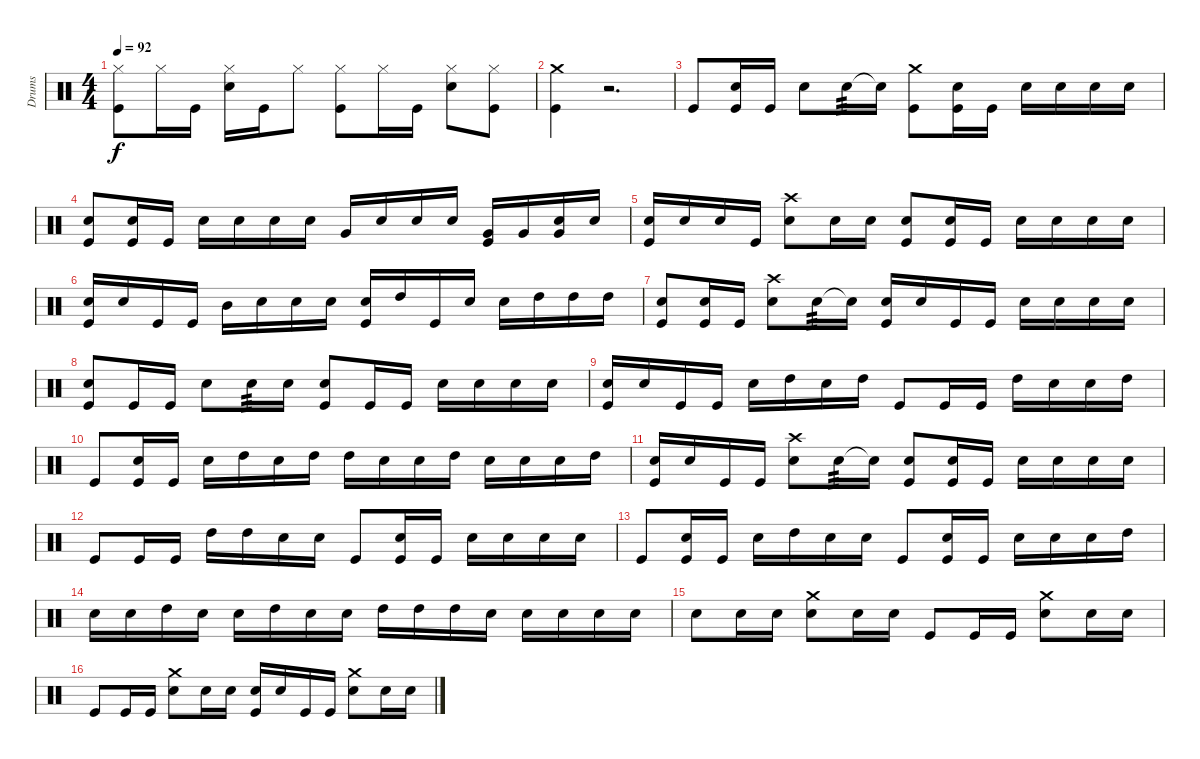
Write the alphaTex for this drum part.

\track ("Drums" "Drums") {instrument percussion}
\staff {score}
\articulation defaults
\ts (4 4)
\tempo 92
\clef neutral
\ks c
("Kick (hit)" "Hi-Hat (closed)").8{dy f} "Hi-Hat (closed)".16 "Kick (hit)".16 ("Electric Snare (hit)" "Hi-Hat (closed)").16 "Kick (hit)".16 "Hi-Hat (closed)".8 ("Kick (hit)" "Hi-Hat (closed)").8 "Hi-Hat (closed)".16 "Kick (hit)".16 ("Electric Snare (hit)" "Hi-Hat (closed)").8 ("Kick (hit)" "Hi-Hat (closed)").8 |
("Kick (hit)" "Crash medium (hit)").4 r.2{d} |
"Kick (hit)".8 ("Kick (hit)" "Electric Snare (hit)").16 "Kick (hit)".16 "Electric Snare (hit)".8 "Electric Snare (hit)".16{tp 3} "Electric Snare (hit)"{t}.16 ("Kick (hit)" "Crash medium (hit)").8 ("Kick (hit)" "Electric Snare (hit)").16 "Kick (hit)".16 "Electric Snare (hit)".16 "Electric Snare (hit)".16 "Electric Snare (hit)".16 "Electric Snare (hit)".16 |
("Kick (hit)" "Electric Snare (hit)").8 ("Kick (hit)" "Electric Snare (hit)").16 "Kick (hit)".16 "Electric Snare (hit)".16 "Electric Snare (hit)".16 "Electric Snare (hit)".16 "Electric Snare (hit)".16 "Very Low Tom (hit)".16 "Electric Snare (hit)".16 "Electric Snare (hit)".16 "Electric Snare (hit)".16 ("Kick (hit)" "Very Low Tom (hit)").16 "Very Low Tom (hit)".16 ("Electric Snare (hit)" "Very Low Tom (hit)").16 "Electric Snare (hit)".16 |
("Kick (hit)" "Electric Snare (hit)").16 "Electric Snare (hit)".16 "Electric Snare (hit)".16 "Kick (hit)".16 ("Electric Snare (hit)" "Crash high (hit)").8 "Electric Snare (hit)".16 "Electric Snare (hit)".16 ("Kick (hit)" "Electric Snare (hit)").8 ("Kick (hit)" "Electric Snare (hit)").16 "Kick (hit)".16 "Electric Snare (hit)".16 "Electric Snare (hit)".16 "Electric Snare (hit)".16 "Electric Snare (hit)".16 |
("Kick (hit)" "Electric Snare (hit)").16 "Electric Snare (hit)".16 "Kick (hit)".16 "Kick (hit)".16 "Mid Tom (hit)".16 "Electric Snare (hit)".16 "Electric Snare (hit)".16 "Electric Snare (hit)".16 ("Kick (hit)" "Electric Snare (hit)").16 "High Tom (hit)".16 "Kick (hit)".16 "Electric Snare (hit)".16 "Electric Snare (hit)".16 "High Tom (hit)".16 "High Tom (hit)".16 "High Tom (hit)".16 |
("Kick (hit)" "Electric Snare (hit)").8 ("Kick (hit)" "Electric Snare (hit)").16 "Kick (hit)".16 ("Electric Snare (hit)" "Crash high (hit)").8 "Electric Snare (hit)".16{tp 3} "Snare (hit)"{t}.16 ("Kick (hit)" "Electric Snare (hit)").16 "Electric Snare (hit)".16 "Kick (hit)".16 "Kick (hit)".16 "Electric Snare (hit)".16 "Electric Snare (hit)".16 "Electric Snare (hit)".16 "Electric Snare (hit)".16 |
("Kick (hit)" "Electric Snare (hit)").8 "Kick (hit)".16 "Kick (hit)".16 "Electric Snare (hit)".8 "Electric Snare (hit)".16{tp 3} "Electric Snare (hit)".16 ("Kick (hit)" "Electric Snare (hit)").8 "Kick (hit)".16 "Kick (hit)".16 "Electric Snare (hit)".16 "Electric Snare (hit)".16 "Electric Snare (hit)".16 "Electric Snare (hit)".16 |
("Kick (hit)" "Electric Snare (hit)").16 "Electric Snare (hit)".16 "Kick (hit)".16 "Kick (hit)".16 "Electric Snare (hit)".16 "High Tom (hit)".16 "Electric Snare (hit)".16 "High Tom (hit)".16 "Kick (hit)".8 "Kick (hit)".16 "Kick (hit)".16 "High Tom (hit)".16 "Electric Snare (hit)".16 "Electric Snare (hit)".16 "High Tom (hit)".16 |
"Kick (hit)".8 ("Kick (hit)" "Electric Snare (hit)").16 "Kick (hit)".16 "Electric Snare (hit)".16 "High Tom (hit)".16 "Electric Snare (hit)".16 "High Tom (hit)".16 "High Tom (hit)".16 "Electric Snare (hit)".16 "Electric Snare (hit)".16 "High Tom (hit)".16 "Electric Snare (hit)".16 "Electric Snare (hit)".16 "Electric Snare (hit)".16 "High Tom (hit)".16 |
("Kick (hit)" "Electric Snare (hit)").16 "Electric Snare (hit)".16 "Kick (hit)".16 "Kick (hit)".16 ("Electric Snare (hit)" "Crash high (hit)").8 "Electric Snare (hit)".16{tp 3} "Snare (hit)"{t}.16 ("Kick (hit)" "Electric Snare (hit)").8 ("Kick (hit)" "Electric Snare (hit)").16 "Kick (hit)".16 "Electric Snare (hit)".16 "Electric Snare (hit)".16 "Electric Snare (hit)".16 "Electric Snare (hit)".16 |
"Kick (hit)".8 "Kick (hit)".16 "Kick (hit)".16 "High Tom (hit)".16 "High Tom (hit)".16 "Electric Snare (hit)".16 "Electric Snare (hit)".16 "Kick (hit)".8 ("Kick (hit)" "Electric Snare (hit)").16 "Kick (hit)".16 "Electric Snare (hit)".16 "Electric Snare (hit)".16 "Electric Snare (hit)".16 "Electric Snare (hit)".16 |
"Kick (hit)".8 ("Kick (hit)" "Electric Snare (hit)").16 "Kick (hit)".16 "Electric Snare (hit)".16 "High Tom (hit)".16 "Electric Snare (hit)".16 "Electric Snare (hit)".16 "Kick (hit)".8 ("Kick (hit)" "Electric Snare (hit)").16 "Kick (hit)".16 "Electric Snare (hit)".16 "Electric Snare (hit)".16 "Electric Snare (hit)".16 "High Tom (hit)".16 |
"Electric Snare (hit)".16 "Electric Snare (hit)".16 "High Tom (hit)".16 "Electric Snare (hit)".16 "Electric Snare (hit)".16 "High Tom (hit)".16 "Electric Snare (hit)".16 "Electric Snare (hit)".16 "High Tom (hit)".16 "High Tom (hit)".16 "High Tom (hit)".16 "Electric Snare (hit)".16 "Electric Snare (hit)".16 "Electric Snare (hit)".16 "Electric Snare (hit)".16 "Electric Snare (hit)".16 |
"Electric Snare (hit)".8 "Electric Snare (hit)".16 "Electric Snare (hit)".16 ("Electric Snare (hit)" "Crash medium (hit)").8 "Electric Snare (hit)".16 "Electric Snare (hit)".16 "Kick (hit)".8 "Kick (hit)".16 "Kick (hit)".16 ("Electric Snare (hit)" "Crash medium (hit)").8 "Electric Snare (hit)".16 "Electric Snare (hit)".16 |
"Kick (hit)".8 "Kick (hit)".16 "Kick (hit)".16 ("Electric Snare (hit)" "Crash medium (hit)").8 "Electric Snare (hit)".16 "Electric Snare (hit)".16 ("Kick (hit)" "Electric Snare (hit)").16 "Electric Snare (hit)".16 "Kick (hit)".16 "Kick (hit)".16 ("Electric Snare (hit)" "Crash medium (hit)").8 "Electric Snare (hit)".16 "Electric Snare (hit)".16
